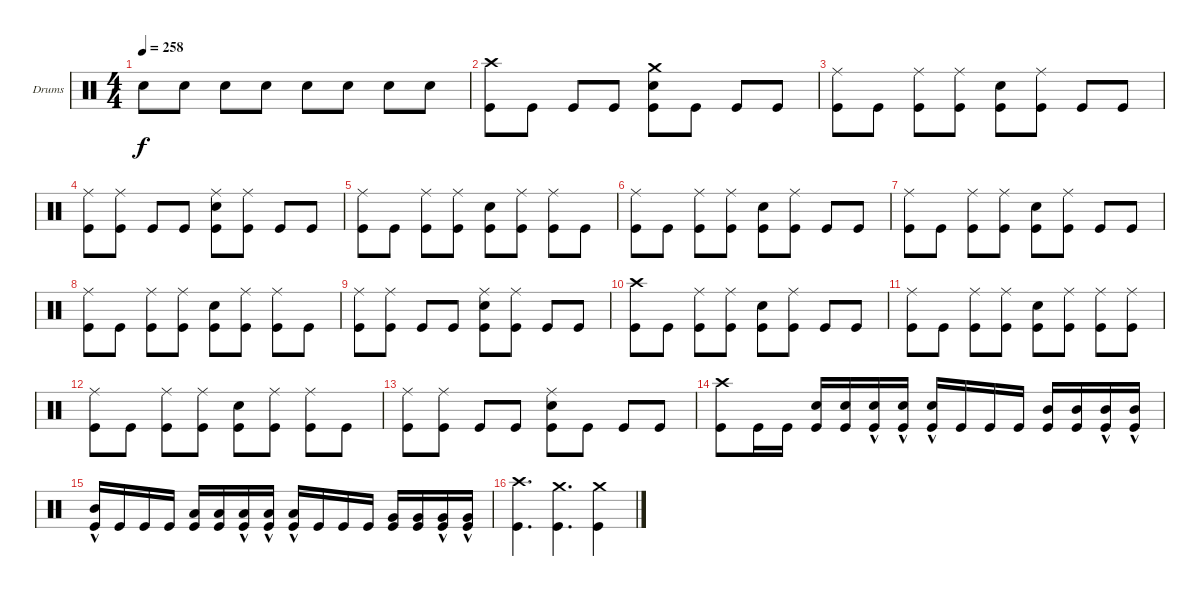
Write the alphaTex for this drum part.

\defaultSystemsLayout 4
\bracketExtendMode groupsimilarinstruments
\firstSystemTrackNameOrientation horizontal
\otherSystemsTrackNameOrientation horizontal
\track ("Drumkit" "Drums") {instrument percussion}
\staff {score}
\articulation defaults
\ts (4 4)
\tempo 258
\clef neutral
\ks c "Snare (hit) 2".8{dy f} "Snare (hit) 2".8 "Snare (hit) 2".8 "Snare (hit) 2".8 "Snare (hit) 2".8 "Snare (hit) 2".8 "Snare (hit) 2".8 "Snare (hit) 2".8
|
("Kick (hit)" "Crash high (hit)").8 "Kick (hit)".8 "Kick (hit)".8 "Kick (hit)".8 ("Kick (hit)" "Crash medium (hit)" "Snare (hit) 2").8 "Kick (hit)".8 "Kick (hit)".8 "Kick (hit)".8 |
("Ride (middle)" "Kick (hit)").8 "Kick (hit)".8 ("Kick (hit)" "Ride (middle)").8 ("Kick (hit)" "Ride (middle)").8 ("Kick (hit)" "Snare (hit) 2").8 ("Kick (hit)" "Ride (middle)").8 "Kick (hit)".8 "Kick (hit)".8 |
("Kick (hit)" "Ride (middle)").8 ("Kick (hit)" "Ride (middle)").8 "Kick (hit)".8 "Kick (hit)".8 ("Kick (hit)" "Ride (middle)" "Snare (hit) 2").8 ("Kick (hit)" "Ride (middle)").8 "Kick (hit)".8 "Kick (hit)".8 |
("Kick (hit)" "Ride (middle)").8 "Kick (hit)".8 ("Kick (hit)" "Ride (middle)").8 ("Kick (hit)" "Ride (middle)").8 ("Kick (hit)" "Snare (hit) 2").8 ("Kick (hit)" "Ride (middle)").8 ("Kick (hit)" "Ride (middle)").8 "Kick (hit)".8 |
("Kick (hit)" "Ride (middle)").8 "Kick (hit)".8 ("Kick (hit)" "Ride (middle)").8 ("Kick (hit)" "Ride (middle)").8 ("Kick (hit)" "Snare (hit) 2").8 ("Kick (hit)" "Ride (middle)").8 "Kick (hit)".8 "Kick (hit)".8 |
("Kick (hit)" "Ride (middle)").8 "Kick (hit)".8 ("Kick (hit)" "Ride (middle)").8 ("Kick (hit)" "Ride (middle)").8 ("Kick (hit)" "Snare (hit) 2").8 ("Kick (hit)" "Ride (middle)").8 "Kick (hit)".8 "Kick (hit)".8 |
("Kick (hit)" "Ride (middle)").8 "Kick (hit)".8 ("Kick (hit)" "Ride (middle)").8 ("Kick (hit)" "Ride (middle)").8 ("Kick (hit)" "Snare (hit) 2").8 ("Kick (hit)" "Ride (middle)").8 ("Kick (hit)" "Ride (middle)").8 "Kick (hit)".8 |
("Kick (hit)" "Ride (middle)").8 ("Kick (hit)" "Ride (middle)").8 "Kick (hit)".8 "Kick (hit)".8 ("Kick (hit)" "Ride (middle)" "Snare (hit) 2").8 ("Kick (hit)" "Ride (middle)").8 "Kick (hit)".8 "Kick (hit)".8 |
("Kick (hit)" "Crash high (hit)").8 "Kick (hit)".8 ("Kick (hit)" "Ride (middle)").8 ("Kick (hit)" "Ride (middle)").8 ("Kick (hit)" "Snare (hit) 2").8 ("Kick (hit)" "Ride (middle)").8 "Kick (hit)".8 "Kick (hit)".8 |
("Kick (hit)" "Ride (middle)").8 "Kick (hit)".8 ("Kick (hit)" "Ride (middle)").8 ("Kick (hit)" "Ride (middle)").8 ("Kick (hit)" "Snare (hit) 2").8 ("Kick (hit)" "Ride (middle)").8 ("Kick (hit)" "Ride (middle)").8 ("Kick (hit)" "Ride (middle)").8 |
("Kick (hit)" "Ride (middle)").8 "Kick (hit)".8 ("Kick (hit)" "Ride (middle)").8 ("Kick (hit)" "Ride (middle)").8 ("Kick (hit)" "Snare (hit) 2").8 ("Kick (hit)" "Ride (middle)").8 ("Kick (hit)" "Ride (middle)").8 "Kick (hit)".8 |
("Kick (hit)" "Ride (middle)").8 ("Kick (hit)" "Ride (middle)").8 "Kick (hit)".8 "Kick (hit)".8 ("Kick (hit)" "Snare (hit) 2" "Ride (middle)").8 "Kick (hit)".8 "Kick (hit)".8 "Kick (hit)".8 |
("Crash high (hit)" "Kick (hit)").8 "Kick (hit)".16 "Kick (hit)".16 ("Kick (hit)" "Snare (hit) 2").16 ("Kick (hit)" "Snare (hit) 2").16 ("Kick (hit)" "Snare (hit) 2"{hac}).16 ("Kick (hit)" "Snare (hit) 2"{hac}).16 ("Kick (hit)" "Snare (hit) 2"{hac}).16 "Kick (hit)".16 "Kick (hit)".16 "Kick (hit)".16 ("Kick (hit)" "Mid Tom (hit)").16 ("Kick (hit)" "Mid Tom (hit)").16 ("Kick (hit)" "Mid Tom (hit)"{hac}).16 ("Kick (hit)" "Mid Tom (hit)"{hac}).16 |
("Kick (hit)" "Mid Tom (hit)"{hac}).16 "Kick (hit)".16 "Kick (hit)".16 "Kick (hit)".16 ("Kick (hit)" "Low Tom (hit)").16 ("Kick (hit)" "Low Tom (hit)").16 ("Kick (hit)" "Low Tom (hit)"{hac}).16 ("Kick (hit)" "Low Tom (hit)"{hac}).16 ("Kick (hit)" "Low Tom (hit)"{hac}).16 "Kick (hit)".16 "Kick (hit)".16 "Kick (hit)".16 ("Kick (hit)" "Very Low Tom (hit)").16 ("Kick (hit)" "Very Low Tom (hit)").16 ("Kick (hit)" "Very Low Tom (hit)"{hac}).16 ("Kick (hit)" "Very Low Tom (hit)"{hac}).16 |
("Kick (hit)" "Crash high (hit)").4{d} ("Kick (hit)" "Crash medium (hit)").4{d} ("Kick (hit)" "Crash medium (hit)").4
